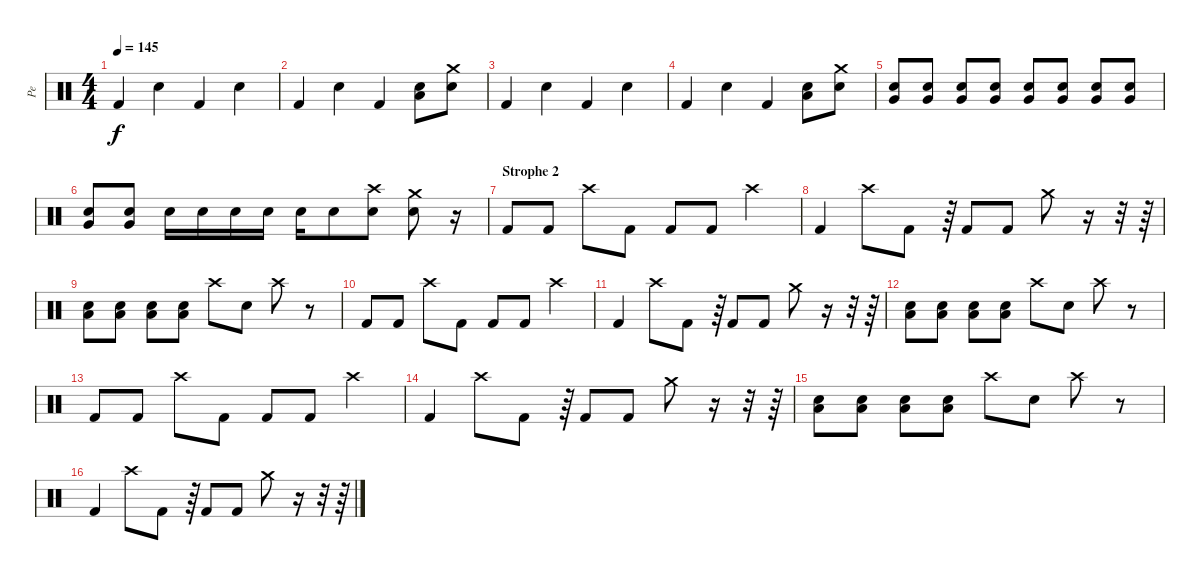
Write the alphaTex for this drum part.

\track ("Pe" "Pe") {instrument percussion}
\staff {score}
\articulation defaults
\ts (4 4)
\tempo 145
\clef neutral
\ks c "Kick (hit) 2".4{dy f} "Snare (hit) 2".4 "Kick (hit) 2".4 "Snare (hit) 2".4
|
"Kick (hit) 2".4 "Snare (hit) 2".4 "Kick (hit) 2".4 ("Snare (hit) 2" "Low Floor Tom (hit)").8 ("Crash medium (hit)" "Snare (hit) 2").8 |
"Kick (hit) 2".4 "Snare (hit) 2".4 "Kick (hit) 2".4 "Snare (hit) 2".4 |
"Kick (hit) 2".4 "Snare (hit) 2".4 "Kick (hit) 2".4 ("Snare (hit) 2" "Low Floor Tom (hit)").8 ("Crash medium (hit)" "Snare (hit) 2").8 |
("Snare (hit) 2" "Very Low Tom (hit)").8 ("Snare (hit) 2" "Very Low Tom (hit)").8 ("Snare (hit) 2" "Very Low Tom (hit)").8 ("Snare (hit) 2" "Very Low Tom (hit)").8 ("Snare (hit) 2" "Very Low Tom (hit)").8 ("Snare (hit) 2" "Very Low Tom (hit)").8 ("Snare (hit) 2" "Very Low Tom (hit)").8 ("Snare (hit) 2" "Very Low Tom (hit)").8 |
("Snare (hit) 2" "Very Low Tom (hit)").8 ("Snare (hit) 2" "Very Low Tom (hit)").8 "Electric Snare (hit)".16 "Electric Snare (hit)".16 "Electric Snare (hit)".16 "Electric Snare (hit)".16 "Electric Snare (hit)".16 "Electric Snare (hit)".8 ("Crash high (hit)" "Snare (hit) 2").8 ("Crash medium (hit)" "Snare (hit) 2").8 r.16 |
\section ("" "Strophe 2")
"Kick (hit) 2".8 "Kick (hit) 2".8 "Crash high (hit)".8 "Kick (hit) 2".8 "Kick (hit) 2".8 "Kick (hit) 2".8 "Crash high (hit)".4 |
"Kick (hit) 2".4 "Crash high (hit)".8 "Kick (hit) 2".8 r.64 "Kick (hit) 2".8 "Kick (hit) 2".8 "Crash medium (hit)".8 r.16 r.32 r.64 |
("Electric Snare (hit)" "Low Tom (hit)").8 ("Electric Snare (hit)" "Low Floor Tom (hit)").8 ("Electric Snare (hit)" "Low Tom (hit)").8 ("Electric Snare (hit)" "Low Floor Tom (hit)").8 "Crash high (hit)".8 "Electric Snare (hit)".8 "Crash high (hit)".8 r.8 |
"Kick (hit) 2".8 "Kick (hit) 2".8 "Crash high (hit)".8 "Kick (hit) 2".8 "Kick (hit) 2".8 "Kick (hit) 2".8 "Crash high (hit)".4 |
"Kick (hit) 2".4 "Crash high (hit)".8 "Kick (hit) 2".8 r.64 "Kick (hit) 2".8 "Kick (hit) 2".8 "Crash medium (hit)".8 r.16 r.32 r.64 |
("Electric Snare (hit)" "Low Tom (hit)").8 ("Electric Snare (hit)" "Low Floor Tom (hit)").8 ("Electric Snare (hit)" "Low Tom (hit)").8 ("Electric Snare (hit)" "Low Floor Tom (hit)").8 "Crash high (hit)".8 "Electric Snare (hit)".8 "Crash high (hit)".8 r.8 |
"Kick (hit) 2".8 "Kick (hit) 2".8 "Crash high (hit)".8 "Kick (hit) 2".8 "Kick (hit) 2".8 "Kick (hit) 2".8 "Crash high (hit)".4 |
"Kick (hit) 2".4 "Crash high (hit)".8 "Kick (hit) 2".8 r.64 "Kick (hit) 2".8 "Kick (hit) 2".8 "Crash medium (hit)".8 r.16 r.32 r.64 |
("Electric Snare (hit)" "Low Tom (hit)").8 ("Electric Snare (hit)" "Low Floor Tom (hit)").8 ("Electric Snare (hit)" "Low Tom (hit)").8 ("Electric Snare (hit)" "Low Floor Tom (hit)").8 "Crash high (hit)".8 "Electric Snare (hit)".8 "Crash high (hit)".8 r.8 |
"Kick (hit) 2".4 "Crash high (hit)".8 "Kick (hit) 2".8 r.64 "Kick (hit) 2".8 "Kick (hit) 2".8 "Crash medium (hit)".8 r.16 r.32 r.64
